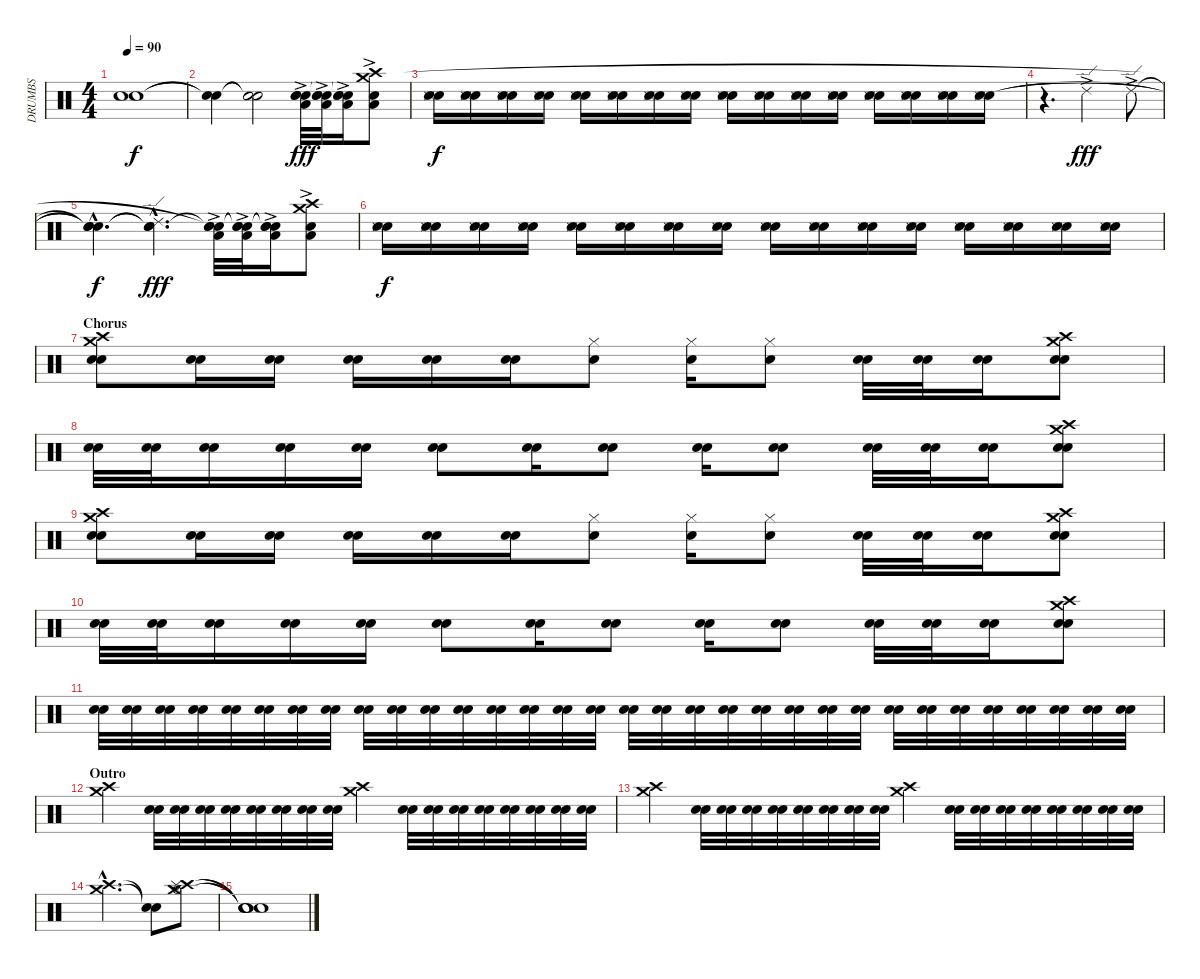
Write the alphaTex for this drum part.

\track ("DRUMBS" "DRUMBS") {instrument percussion}
\staff {score}
\articulation defaults
\ts (4 4)
\tempo 90
\clef neutral
\ks c
("Snare (hit)"{t} "Snare (hit)"{t}).1{dy f} |
("Snare (hit)"{t} "Snare (hit)"{t}).4 ("Snare (hit)"{t} "Snare (hit)"{t}).2 ("Electric Snare (hit)"{ac} "Low Tom (hit)"{ac} "Snare (hit)"{t} "Snare (hit)"{t}).32{dy fff} ("Electric Snare (hit)"{ac} "Low Tom (hit)"{ac} "Snare (hit)"{t} "Snare (hit)"{t}).32 ("Electric Snare (hit)"{ac} "Low Tom (hit)"{ac} "Snare (hit)"{t} "Snare (hit)"{t}).16 ("Electric Snare (hit)"{ac} "Low Tom (hit)"{ac} "Crash high (hit)" "Crash medium (hit)").8 |
("Electric Snare (hit)" "Snare (side stick) 3" "Snare (hit) 2").16{dy f} ("Electric Snare (hit)" "Snare (side stick) 3" "Snare (hit) 2").16 ("Electric Snare (hit)" "Snare (side stick) 3" "Snare (hit) 2").16 ("Electric Snare (hit)" "Snare (side stick) 3" "Snare (hit) 2").16 ("Electric Snare (hit)" "Snare (side stick) 3" "Snare (hit) 2").16 ("Electric Snare (hit)" "Snare (side stick) 3" "Snare (hit) 2").16 ("Electric Snare (hit)" "Snare (side stick) 3" "Snare (hit) 2").16 ("Electric Snare (hit)" "Snare (side stick) 3" "Snare (hit) 2").16 ("Electric Snare (hit)" "Snare (side stick) 3" "Snare (hit) 2").16 ("Electric Snare (hit)" "Snare (side stick) 3" "Snare (hit) 2").16 ("Electric Snare (hit)" "Snare (side stick) 3" "Snare (hit) 2").16 ("Electric Snare (hit)" "Snare (side stick) 3" "Snare (hit) 2").16 ("Electric Snare (hit)" "Snare (side stick) 3" "Snare (hit) 2").16 ("Electric Snare (hit)" "Snare (side stick) 3" "Snare (hit) 2").16 ("Electric Snare (hit)" "Snare (side stick) 3" "Snare (hit) 2").16 ("Electric Snare (hit)" "Snare (side stick) 3" "Snare (hit) 2").16 |
r.4{d} "Ride (edge) 2"{ac}.2{dy fff} "Ride (edge) 2"{ac}.8 |
("Snare (hit)"{hac t} "Snare (hit)"{hac t} "Snare (hit)"{hac t}).4{d dy f} ("Ride (edge) 2"{hac} "Snare (hit)"{hac t} "Snare (hit)"{hac t}).4{d dy fff} ("Electric Snare (hit)"{ac} "Low Tom (hit)"{ac} "Snare (hit)"{t} "Snare (hit)"{t}).32 ("Electric Snare (hit)"{ac} "Low Tom (hit)"{ac} "Snare (hit)"{t} "Snare (hit)"{t}).32 ("Electric Snare (hit)"{ac} "Low Tom (hit)"{ac} "Snare (hit)"{t} "Snare (hit)"{t}).16 ("Electric Snare (hit)"{ac} "Low Tom (hit)"{ac} "Crash high (hit)" "Crash medium (hit)").8 |
("Electric Snare (hit)" "Snare (side stick) 3" "Snare (hit) 2").16{dy f volume 10} ("Electric Snare (hit)" "Snare (side stick) 3" "Snare (hit) 2").16 ("Electric Snare (hit)" "Snare (side stick) 3" "Snare (hit) 2").16 ("Electric Snare (hit)" "Snare (side stick) 3" "Snare (hit) 2").16 ("Electric Snare (hit)" "Snare (side stick) 3" "Snare (hit) 2").16 ("Electric Snare (hit)" "Snare (side stick) 3" "Snare (hit) 2").16 ("Electric Snare (hit)" "Snare (side stick) 3" "Snare (hit) 2").16 ("Electric Snare (hit)" "Snare (side stick) 3" "Snare (hit) 2").16 ("Electric Snare (hit)" "Snare (side stick) 3" "Snare (hit) 2").16 ("Electric Snare (hit)" "Snare (side stick) 3" "Snare (hit) 2").16 ("Electric Snare (hit)" "Snare (side stick) 3" "Snare (hit) 2").16 ("Electric Snare (hit)" "Snare (side stick) 3" "Snare (hit) 2").16 ("Electric Snare (hit)" "Snare (side stick) 3" "Snare (hit) 2").16 ("Electric Snare (hit)" "Snare (side stick) 3" "Snare (hit) 2").16 ("Electric Snare (hit)" "Snare (side stick) 3" "Snare (hit) 2").16 ("Electric Snare (hit)" "Snare (side stick) 3" "Snare (hit) 2").16 |
\section ("" "Chorus")
("Electric Snare (hit)" "Snare (hit) 2" "Crash medium (hit)" "Crash high (hit)").8 ("Electric Snare (hit)" "Snare (hit) 2").16 ("Electric Snare (hit)" "Snare (hit) 2").16 ("Electric Snare (hit)" "Snare (hit) 2").16 ("Electric Snare (hit)" "Snare (hit) 2").16 ("Electric Snare (hit)" "Snare (hit) 2").16 ("Snare (hit) 2" "Hi-Hat (closed)").8 ("Snare (hit) 2" "Hi-Hat (closed)").16 ("Snare (hit) 2" "Hi-Hat (closed)").8 ("Electric Snare (hit)" "Snare (hit) 2").32 ("Electric Snare (hit)" "Snare (hit) 2").32 ("Electric Snare (hit)" "Snare (hit) 2").16 ("Electric Snare (hit)" "Snare (hit) 2" "Crash medium (hit)" "Crash high (hit)").8 |
("Electric Snare (hit)" "Snare (hit) 2").32 ("Electric Snare (hit)" "Snare (hit) 2").32 ("Electric Snare (hit)" "Snare (hit) 2").16 ("Electric Snare (hit)" "Snare (hit) 2").16 ("Electric Snare (hit)" "Snare (hit) 2").16 ("Electric Snare (hit)" "Snare (hit) 2").8 ("Electric Snare (hit)" "Snare (hit) 2").16 ("Electric Snare (hit)" "Snare (hit) 2").8 ("Electric Snare (hit)" "Snare (hit) 2").16 ("Electric Snare (hit)" "Snare (hit) 2").8 ("Electric Snare (hit)" "Snare (hit) 2").32 ("Electric Snare (hit)" "Snare (hit) 2").32 ("Electric Snare (hit)" "Snare (hit) 2").16 ("Electric Snare (hit)" "Snare (hit) 2" "Crash medium (hit)" "Crash high (hit)").8 |
("Electric Snare (hit)" "Snare (hit) 2" "Crash medium (hit)" "Crash high (hit)").8 ("Electric Snare (hit)" "Snare (hit) 2").16 ("Electric Snare (hit)" "Snare (hit) 2").16 ("Electric Snare (hit)" "Snare (hit) 2").16 ("Electric Snare (hit)" "Snare (hit) 2").16 ("Electric Snare (hit)" "Snare (hit) 2").16 ("Snare (hit) 2" "Hi-Hat (closed)").8 ("Snare (hit) 2" "Hi-Hat (closed)").16 ("Snare (hit) 2" "Hi-Hat (closed)").8 ("Electric Snare (hit)" "Snare (hit) 2").32 ("Electric Snare (hit)" "Snare (hit) 2").32 ("Electric Snare (hit)" "Snare (hit) 2").16 ("Electric Snare (hit)" "Snare (hit) 2" "Crash medium (hit)" "Crash high (hit)").8 |
("Electric Snare (hit)" "Snare (hit) 2").32 ("Electric Snare (hit)" "Snare (hit) 2").32 ("Electric Snare (hit)" "Snare (hit) 2").16 ("Electric Snare (hit)" "Snare (hit) 2").16 ("Electric Snare (hit)" "Snare (hit) 2").16 ("Electric Snare (hit)" "Snare (hit) 2").8 ("Electric Snare (hit)" "Snare (hit) 2").16 ("Electric Snare (hit)" "Snare (hit) 2").8 ("Electric Snare (hit)" "Snare (hit) 2").16 ("Electric Snare (hit)" "Snare (hit) 2").8 ("Electric Snare (hit)" "Snare (hit) 2").32 ("Electric Snare (hit)" "Snare (hit) 2").32 ("Electric Snare (hit)" "Snare (hit) 2").16 ("Electric Snare (hit)" "Snare (hit) 2" "Crash medium (hit)" "Crash high (hit)").8 |
("Snare (hit) 2" "Electric Snare (hit)").32 ("Snare (hit) 2" "Electric Snare (hit)").32 ("Snare (hit) 2" "Electric Snare (hit)").32 ("Snare (hit) 2" "Electric Snare (hit)").32 ("Snare (hit) 2" "Electric Snare (hit)").32 ("Snare (hit) 2" "Electric Snare (hit)").32 ("Snare (hit) 2" "Electric Snare (hit)").32 ("Snare (hit) 2" "Electric Snare (hit)").32 ("Snare (hit) 2" "Electric Snare (hit)").32 ("Snare (hit) 2" "Electric Snare (hit)").32 ("Snare (hit) 2" "Electric Snare (hit)").32 ("Snare (hit) 2" "Electric Snare (hit)").32 ("Snare (hit) 2" "Electric Snare (hit)").32 ("Snare (hit) 2" "Electric Snare (hit)").32 ("Snare (hit) 2" "Electric Snare (hit)").32 ("Snare (hit) 2" "Electric Snare (hit)").32 ("Snare (hit) 2" "Electric Snare (hit)").32 ("Snare (hit) 2" "Electric Snare (hit)").32 ("Snare (hit) 2" "Electric Snare (hit)").32 ("Snare (hit) 2" "Electric Snare (hit)").32 ("Snare (hit) 2" "Electric Snare (hit)").32 ("Snare (hit) 2" "Electric Snare (hit)").32 ("Snare (hit) 2" "Electric Snare (hit)").32 ("Snare (hit) 2" "Electric Snare (hit)").32 ("Snare (hit) 2" "Electric Snare (hit)").32 ("Snare (hit) 2" "Electric Snare (hit)").32 ("Snare (hit) 2" "Electric Snare (hit)").32 ("Snare (hit) 2" "Electric Snare (hit)").32 ("Snare (hit) 2" "Electric Snare (hit)").32 ("Snare (hit) 2" "Electric Snare (hit)").32 ("Snare (hit) 2" "Electric Snare (hit)").32 ("Snare (hit) 2" "Electric Snare (hit)").32 |
\section ("" "Outro")
("Crash medium (hit)" "Crash high (hit)").4 ("Electric Snare (hit)" "Snare (hit) 2").32 ("Electric Snare (hit)" "Snare (hit) 2").32 ("Electric Snare (hit)" "Snare (hit) 2").32 ("Electric Snare (hit)" "Snare (hit) 2").32 ("Electric Snare (hit)" "Snare (hit) 2").32 ("Electric Snare (hit)" "Snare (hit) 2").32 ("Electric Snare (hit)" "Snare (hit) 2").32 ("Electric Snare (hit)" "Snare (hit) 2").32 ("Crash medium (hit)" "Crash high (hit)").4 ("Electric Snare (hit)" "Snare (hit) 2").32 ("Electric Snare (hit)" "Snare (hit) 2").32 ("Electric Snare (hit)" "Snare (hit) 2").32 ("Electric Snare (hit)" "Snare (hit) 2").32 ("Electric Snare (hit)" "Snare (hit) 2").32 ("Electric Snare (hit)" "Snare (hit) 2").32 ("Electric Snare (hit)" "Snare (hit) 2").32 ("Electric Snare (hit)" "Snare (hit) 2").32 |
("Crash high (hit)" "Crash medium (hit)").4 ("Electric Snare (hit)" "Snare (hit) 2").32 ("Electric Snare (hit)" "Snare (hit) 2").32 ("Electric Snare (hit)" "Snare (hit) 2").32 ("Electric Snare (hit)" "Snare (hit) 2").32 ("Electric Snare (hit)" "Snare (hit) 2").32 ("Electric Snare (hit)" "Snare (hit) 2").32 ("Electric Snare (hit)" "Snare (hit) 2").32 ("Electric Snare (hit)" "Snare (hit) 2").32 ("Crash medium (hit)" "Crash high (hit)").4 ("Electric Snare (hit)" "Snare (hit) 2").32 ("Electric Snare (hit)" "Snare (hit) 2").32 ("Electric Snare (hit)" "Snare (hit) 2").32 ("Electric Snare (hit)" "Snare (hit) 2").32 ("Electric Snare (hit)" "Snare (hit) 2").32 ("Electric Snare (hit)" "Snare (hit) 2").32 ("Electric Snare (hit)" "Snare (hit) 2").32 ("Electric Snare (hit)" "Snare (hit) 2").32 |
("Crash high (hit)"{hac} "Crash medium (hit)"{hac}).2{d} ("Snare (hit)"{t} "Snare (hit)"{t}).8 ("Crash high (hit)" "Crash medium (hit)" "Splash (hit)" "Hi-Hat (open)").8 |
("Snare (hit)"{t} "Snare (hit)"{t} "Snare (hit)"{t} "Snare (hit)"{t}).1
